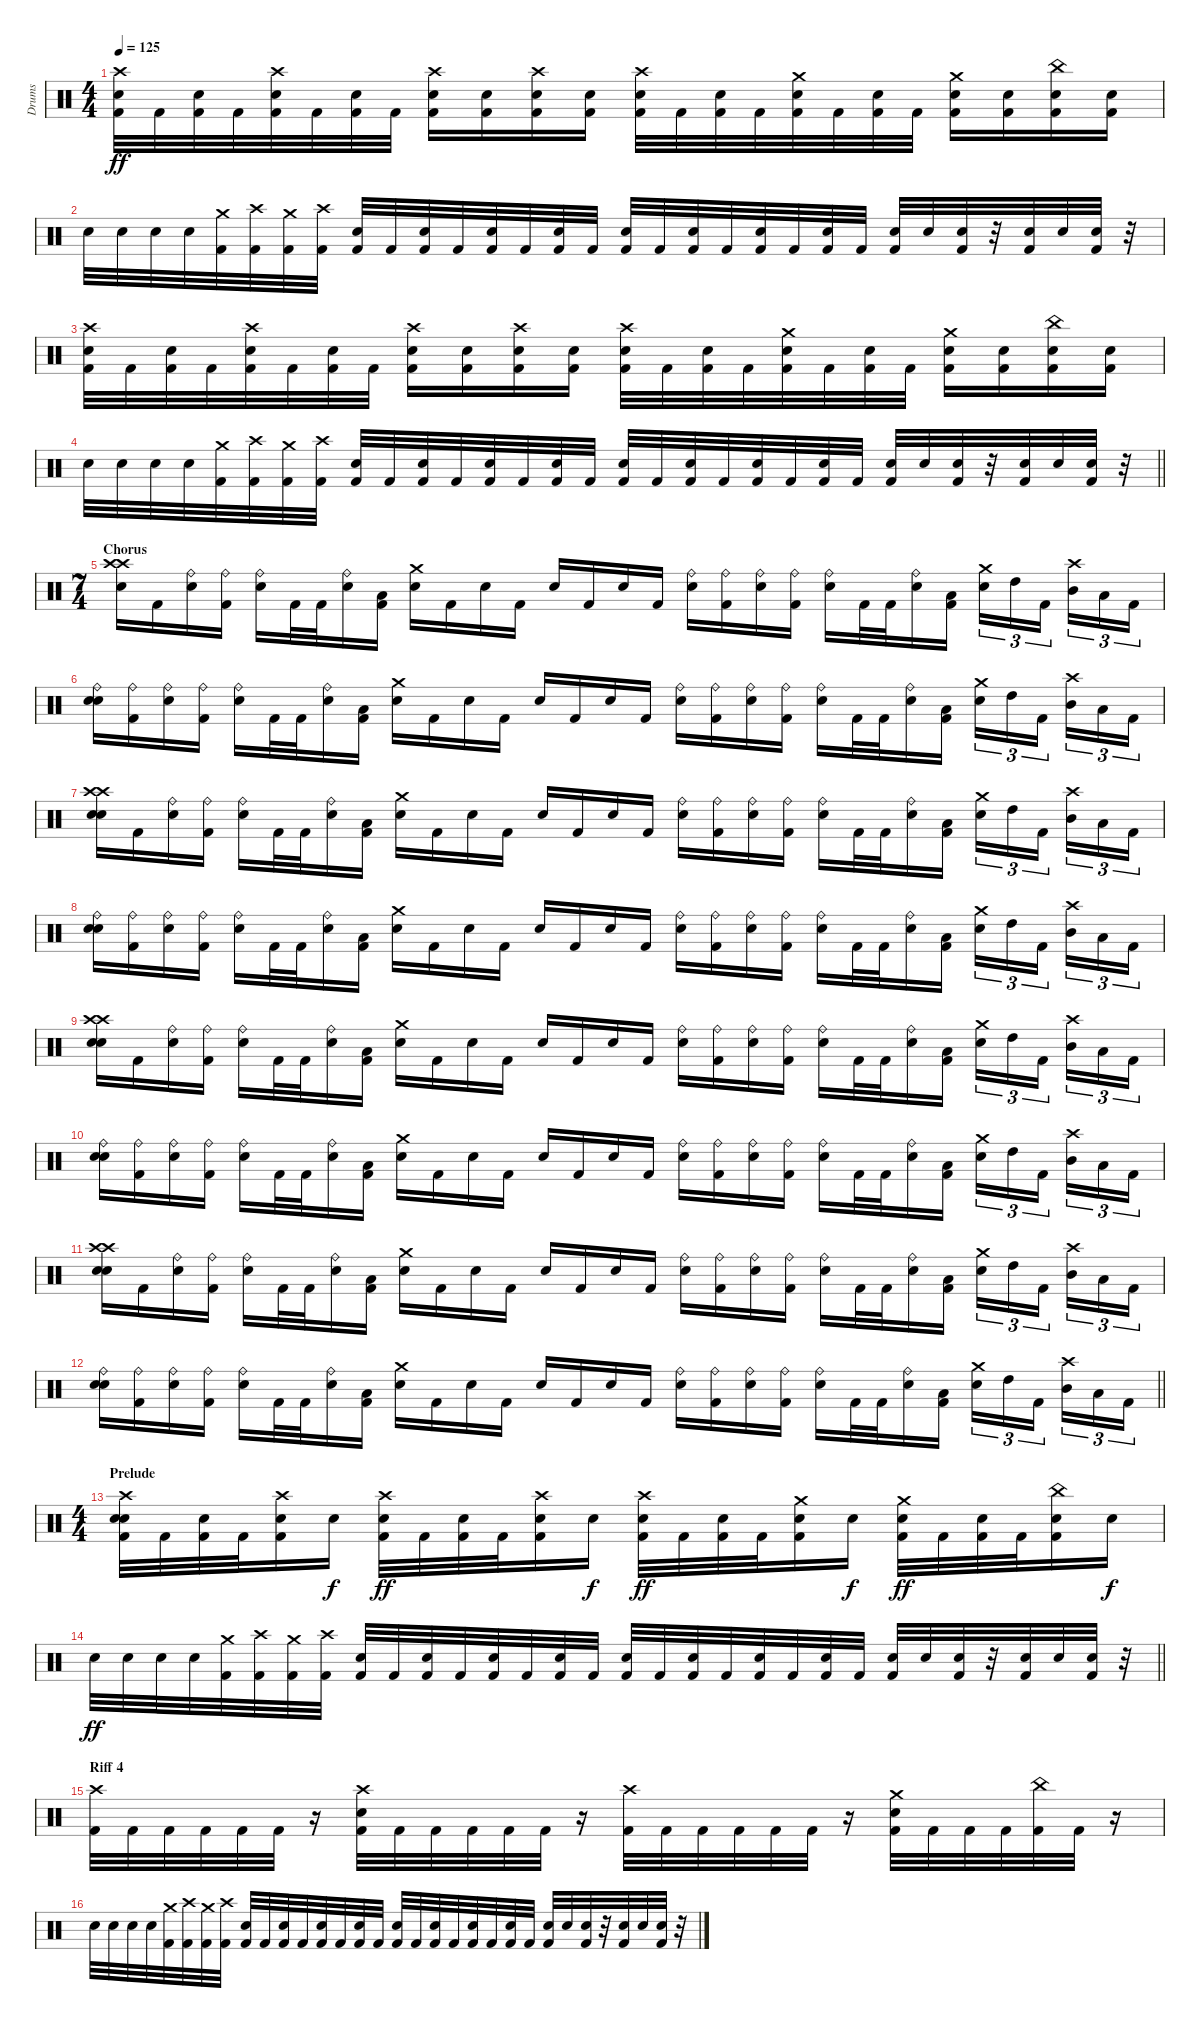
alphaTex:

\track ("Drums" "Drums") {instrument percussion}
\staff {score}
\articulation defaults
\ts (4 4)
\tempo 125
\clef neutral
\ks c
("Crash high (hit)" "Kick (hit) 2" "Snare (hit) 2").32{dy ff} "Kick (hit) 2".32 ("Kick (hit) 2" "Snare (hit) 2").32 "Kick (hit) 2".32 ("Crash high (hit)" "Kick (hit) 2" "Snare (hit) 2").32 "Kick (hit) 2".32 ("Kick (hit) 2" "Snare (hit) 2").32 "Kick (hit) 2".32 ("Crash high (hit)" "Kick (hit) 2" "Snare (hit) 2").16 ("Kick (hit) 2" "Snare (hit) 2").16 ("Crash high (hit)" "Kick (hit) 2" "Snare (hit) 2").16 ("Kick (hit) 2" "Snare (hit) 2").16 ("Crash high (hit)" "Kick (hit) 2" "Snare (hit) 2").32 "Kick (hit) 2".32 ("Kick (hit) 2" "Snare (hit) 2").32 "Kick (hit) 2".32 ("Crash medium (hit)" "Kick (hit) 2" "Snare (hit) 2").32 "Kick (hit) 2".32 ("Kick (hit) 2" "Snare (hit) 2").32 "Kick (hit) 2".32 ("Crash medium (hit)" "Kick (hit) 2" "Snare (hit) 2").16 ("Kick (hit) 2" "Snare (hit) 2").16 ("China (hit)" "Kick (hit) 2" "Snare (hit) 2").16 ("Kick (hit) 2" "Snare (hit) 2").16 |
"Snare (hit) 2".32 "Snare (hit) 2".32 "Snare (hit) 2".32 "Snare (hit) 2".32 ("Crash medium (hit)" "Kick (hit) 2").32 ("Crash high (hit)" "Kick (hit) 2").32 ("Crash medium (hit)" "Kick (hit) 2").32 ("Crash high (hit)" "Kick (hit) 2").32 ("Kick (hit) 2" "Snare (hit) 2").32 "Kick (hit) 2".32 ("Kick (hit) 2" "Snare (hit) 2").32 "Kick (hit) 2".32 ("Kick (hit) 2" "Snare (hit) 2").32 "Kick (hit) 2".32 ("Kick (hit) 2" "Snare (hit) 2").32 "Kick (hit) 2".32 ("Kick (hit) 2" "Snare (hit) 2").32 "Kick (hit) 2".32 ("Kick (hit) 2" "Snare (hit) 2").32 "Kick (hit) 2".32 ("Kick (hit) 2" "Snare (hit) 2").32 "Kick (hit) 2".32 ("Kick (hit) 2" "Snare (hit) 2").32 "Kick (hit) 2".32 ("Kick (hit) 2" "Snare (hit) 2").32 "Snare (hit) 2".32 ("Kick (hit) 2" "Snare (hit) 2").32 r.32 ("Kick (hit) 2" "Snare (hit) 2").32 "Snare (hit) 2".32 ("Kick (hit) 2" "Snare (hit) 2").32 r.32 |
("Crash high (hit)" "Kick (hit) 2" "Snare (hit) 2").32 "Kick (hit) 2".32 ("Kick (hit) 2" "Snare (hit) 2").32 "Kick (hit) 2".32 ("Crash high (hit)" "Kick (hit) 2" "Snare (hit) 2").32 "Kick (hit) 2".32 ("Kick (hit) 2" "Snare (hit) 2").32 "Kick (hit) 2".32 ("Crash high (hit)" "Kick (hit) 2" "Snare (hit) 2").16 ("Kick (hit) 2" "Snare (hit) 2").16 ("Crash high (hit)" "Kick (hit) 2" "Snare (hit) 2").16 ("Kick (hit) 2" "Snare (hit) 2").16 ("Crash high (hit)" "Kick (hit) 2" "Snare (hit) 2").32 "Kick (hit) 2".32 ("Kick (hit) 2" "Snare (hit) 2").32 "Kick (hit) 2".32 ("Crash medium (hit)" "Kick (hit) 2" "Snare (hit) 2").32 "Kick (hit) 2".32 ("Kick (hit) 2" "Snare (hit) 2").32 "Kick (hit) 2".32 ("Crash medium (hit)" "Kick (hit) 2" "Snare (hit) 2").16 ("Kick (hit) 2" "Snare (hit) 2").16 ("China (hit)" "Kick (hit) 2" "Snare (hit) 2").16 ("Kick (hit) 2" "Snare (hit) 2").16 |
\barLineRight lightlight "Snare (hit) 2".32 "Snare (hit) 2".32 "Snare (hit) 2".32 "Snare (hit) 2".32
("Crash medium (hit)" "Kick (hit) 2").32 ("Crash high (hit)" "Kick (hit) 2").32 ("Crash medium (hit)" "Kick (hit) 2").32 ("Crash high (hit)" "Kick (hit) 2").32 ("Kick (hit) 2" "Snare (hit) 2").32 "Kick (hit) 2".32 ("Kick (hit) 2" "Snare (hit) 2").32 "Kick (hit) 2".32 ("Kick (hit) 2" "Snare (hit) 2").32 "Kick (hit) 2".32 ("Kick (hit) 2" "Snare (hit) 2").32 "Kick (hit) 2".32 ("Kick (hit) 2" "Snare (hit) 2").32 "Kick (hit) 2".32 ("Kick (hit) 2" "Snare (hit) 2").32 "Kick (hit) 2".32 ("Kick (hit) 2" "Snare (hit) 2").32 "Kick (hit) 2".32 ("Kick (hit) 2" "Snare (hit) 2").32 "Kick (hit) 2".32 ("Kick (hit) 2" "Snare (hit) 2").32 "Snare (hit) 2".32 ("Kick (hit) 2" "Snare (hit) 2").32 r.32 ("Kick (hit) 2" "Snare (hit) 2").32 "Snare (hit) 2".32 ("Kick (hit) 2" "Snare (hit) 2").32 r.32 |
\ts (7 4)
\section ("" "Chorus")
("Crash high (hit)" "Crash high (hit)" "Snare (hit) 2").16 "Kick (hit) 2".16 ("Snare (hit) 2" "Ride (bell)").16 ("Kick (hit) 2" "Ride (bell)").16 ("Snare (hit) 2" "Ride (bell)").16 "Kick (hit) 2".32 "Kick (hit) 2".32 ("Snare (hit) 2" "Ride (bell)").16 ("Kick (hit) 2" "Low Tom (hit)").16 ("Crash medium (hit)" "Snare (hit) 2").16 "Kick (hit) 2".16 "Snare (hit) 2".16 "Kick (hit) 2".16 "Snare (hit) 2".16 "Kick (hit) 2".16 "Snare (hit) 2".16 "Kick (hit) 2".16 ("Snare (hit) 2" "Ride (bell)").16 ("Kick (hit) 2" "Ride (bell)").16 ("Snare (hit) 2" "Ride (bell)").16 ("Kick (hit) 2" "Ride (bell)").16 ("Snare (hit) 2" "Ride (bell)").16 "Kick (hit) 2".32 "Kick (hit) 2".32 ("Snare (hit) 2" "Ride (bell)").16 ("Kick (hit) 2" "Low Tom (hit)").16 ("Crash medium (hit)" "Snare (hit) 2").16{tu (3 2)} "High Tom (hit)".16{tu (3 2)} "Kick (hit) 2".16{tu (3 2) beam splitsecondary} ("Crash high (hit)" "Mid Tom (hit)").16{tu (3 2)} "Low Tom (hit)".16{tu (3 2)} "Kick (hit) 2".16{tu (3 2)} |
("Snare (hit) 2" "Snare (hit) 2" "Ride (bell)").16 ("Kick (hit) 2" "Ride (bell)").16 ("Snare (hit) 2" "Ride (bell)").16 ("Kick (hit) 2" "Ride (bell)").16 ("Snare (hit) 2" "Ride (bell)").16 "Kick (hit) 2".32 "Kick (hit) 2".32 ("Snare (hit) 2" "Ride (bell)").16 ("Kick (hit) 2" "Low Tom (hit)").16 ("Crash medium (hit)" "Snare (hit) 2").16 "Kick (hit) 2".16 "Snare (hit) 2".16 "Kick (hit) 2".16 "Snare (hit) 2".16 "Kick (hit) 2".16 "Snare (hit) 2".16 "Kick (hit) 2".16 ("Snare (hit) 2" "Ride (bell)").16 ("Kick (hit) 2" "Ride (bell)").16 ("Snare (hit) 2" "Ride (bell)").16 ("Kick (hit) 2" "Ride (bell)").16 ("Snare (hit) 2" "Ride (bell)").16 "Kick (hit) 2".32 "Kick (hit) 2".32 ("Snare (hit) 2" "Ride (bell)").16 ("Kick (hit) 2" "Low Tom (hit)").16 ("Crash medium (hit)" "Snare (hit) 2").16{tu (3 2)} "High Tom (hit)".16{tu (3 2)} "Kick (hit) 2".16{tu (3 2) beam splitsecondary} ("Crash high (hit)" "Mid Tom (hit)").16{tu (3 2)} "Low Tom (hit)".16{tu (3 2)} "Kick (hit) 2".16{tu (3 2)} |
("Snare (hit) 2" "Crash high (hit)" "Crash high (hit)" "Snare (hit) 2").16 "Kick (hit) 2".16 ("Snare (hit) 2" "Ride (bell)").16 ("Kick (hit) 2" "Ride (bell)").16 ("Snare (hit) 2" "Ride (bell)").16 "Kick (hit) 2".32 "Kick (hit) 2".32 ("Snare (hit) 2" "Ride (bell)").16 ("Kick (hit) 2" "Low Tom (hit)").16 ("Crash medium (hit)" "Snare (hit) 2").16 "Kick (hit) 2".16 "Snare (hit) 2".16 "Kick (hit) 2".16 "Snare (hit) 2".16 "Kick (hit) 2".16 "Snare (hit) 2".16 "Kick (hit) 2".16 ("Snare (hit) 2" "Ride (bell)").16 ("Kick (hit) 2" "Ride (bell)").16 ("Snare (hit) 2" "Ride (bell)").16 ("Kick (hit) 2" "Ride (bell)").16 ("Snare (hit) 2" "Ride (bell)").16 "Kick (hit) 2".32 "Kick (hit) 2".32 ("Snare (hit) 2" "Ride (bell)").16 ("Kick (hit) 2" "Low Tom (hit)").16 ("Crash medium (hit)" "Snare (hit) 2").16{tu (3 2)} "High Tom (hit)".16{tu (3 2)} "Kick (hit) 2".16{tu (3 2) beam splitsecondary} ("Crash high (hit)" "Mid Tom (hit)").16{tu (3 2)} "Low Tom (hit)".16{tu (3 2)} "Kick (hit) 2".16{tu (3 2)} |
("Snare (hit) 2" "Snare (hit) 2" "Ride (bell)").16 ("Kick (hit) 2" "Ride (bell)").16 ("Snare (hit) 2" "Ride (bell)").16 ("Kick (hit) 2" "Ride (bell)").16 ("Snare (hit) 2" "Ride (bell)").16 "Kick (hit) 2".32 "Kick (hit) 2".32 ("Snare (hit) 2" "Ride (bell)").16 ("Kick (hit) 2" "Low Tom (hit)").16 ("Crash medium (hit)" "Snare (hit) 2").16 "Kick (hit) 2".16 "Snare (hit) 2".16 "Kick (hit) 2".16 "Snare (hit) 2".16 "Kick (hit) 2".16 "Snare (hit) 2".16 "Kick (hit) 2".16 ("Snare (hit) 2" "Ride (bell)").16 ("Kick (hit) 2" "Ride (bell)").16 ("Snare (hit) 2" "Ride (bell)").16 ("Kick (hit) 2" "Ride (bell)").16 ("Snare (hit) 2" "Ride (bell)").16 "Kick (hit) 2".32 "Kick (hit) 2".32 ("Snare (hit) 2" "Ride (bell)").16 ("Kick (hit) 2" "Low Tom (hit)").16 ("Crash medium (hit)" "Snare (hit) 2").16{tu (3 2)} "High Tom (hit)".16{tu (3 2)} "Kick (hit) 2".16{tu (3 2) beam splitsecondary} ("Crash high (hit)" "Mid Tom (hit)").16{tu (3 2)} "Low Tom (hit)".16{tu (3 2)} "Kick (hit) 2".16{tu (3 2)} |
("Snare (hit) 2" "Crash high (hit)" "Crash high (hit)" "Snare (hit) 2").16 "Kick (hit) 2".16 ("Snare (hit) 2" "Ride (bell)").16 ("Kick (hit) 2" "Ride (bell)").16 ("Snare (hit) 2" "Ride (bell)").16 "Kick (hit) 2".32 "Kick (hit) 2".32 ("Snare (hit) 2" "Ride (bell)").16 ("Kick (hit) 2" "Low Tom (hit)").16 ("Crash medium (hit)" "Snare (hit) 2").16 "Kick (hit) 2".16 "Snare (hit) 2".16 "Kick (hit) 2".16 "Snare (hit) 2".16 "Kick (hit) 2".16 "Snare (hit) 2".16 "Kick (hit) 2".16 ("Snare (hit) 2" "Ride (bell)").16 ("Kick (hit) 2" "Ride (bell)").16 ("Snare (hit) 2" "Ride (bell)").16 ("Kick (hit) 2" "Ride (bell)").16 ("Snare (hit) 2" "Ride (bell)").16 "Kick (hit) 2".32 "Kick (hit) 2".32 ("Snare (hit) 2" "Ride (bell)").16 ("Kick (hit) 2" "Low Tom (hit)").16 ("Crash medium (hit)" "Snare (hit) 2").16{tu (3 2)} "High Tom (hit)".16{tu (3 2)} "Kick (hit) 2".16{tu (3 2) beam splitsecondary} ("Crash high (hit)" "Mid Tom (hit)").16{tu (3 2)} "Low Tom (hit)".16{tu (3 2)} "Kick (hit) 2".16{tu (3 2)} |
("Snare (hit) 2" "Snare (hit) 2" "Ride (bell)").16 ("Kick (hit) 2" "Ride (bell)").16 ("Snare (hit) 2" "Ride (bell)").16 ("Kick (hit) 2" "Ride (bell)").16 ("Snare (hit) 2" "Ride (bell)").16 "Kick (hit) 2".32 "Kick (hit) 2".32 ("Snare (hit) 2" "Ride (bell)").16 ("Kick (hit) 2" "Low Tom (hit)").16 ("Crash medium (hit)" "Snare (hit) 2").16 "Kick (hit) 2".16 "Snare (hit) 2".16 "Kick (hit) 2".16 "Snare (hit) 2".16 "Kick (hit) 2".16 "Snare (hit) 2".16 "Kick (hit) 2".16 ("Snare (hit) 2" "Ride (bell)").16 ("Kick (hit) 2" "Ride (bell)").16 ("Snare (hit) 2" "Ride (bell)").16 ("Kick (hit) 2" "Ride (bell)").16 ("Snare (hit) 2" "Ride (bell)").16 "Kick (hit) 2".32 "Kick (hit) 2".32 ("Snare (hit) 2" "Ride (bell)").16 ("Kick (hit) 2" "Low Tom (hit)").16 ("Crash medium (hit)" "Snare (hit) 2").16{tu (3 2)} "High Tom (hit)".16{tu (3 2)} "Kick (hit) 2".16{tu (3 2) beam splitsecondary} ("Crash high (hit)" "Mid Tom (hit)").16{tu (3 2)} "Low Tom (hit)".16{tu (3 2)} "Kick (hit) 2".16{tu (3 2)} |
("Snare (hit) 2" "Crash high (hit)" "Crash high (hit)" "Snare (hit) 2").16 "Kick (hit) 2".16 ("Snare (hit) 2" "Ride (bell)").16 ("Kick (hit) 2" "Ride (bell)").16 ("Snare (hit) 2" "Ride (bell)").16 "Kick (hit) 2".32 "Kick (hit) 2".32 ("Snare (hit) 2" "Ride (bell)").16 ("Kick (hit) 2" "Low Tom (hit)").16 ("Crash medium (hit)" "Snare (hit) 2").16 "Kick (hit) 2".16 "Snare (hit) 2".16 "Kick (hit) 2".16 "Snare (hit) 2".16 "Kick (hit) 2".16 "Snare (hit) 2".16 "Kick (hit) 2".16 ("Snare (hit) 2" "Ride (bell)").16 ("Kick (hit) 2" "Ride (bell)").16 ("Snare (hit) 2" "Ride (bell)").16 ("Kick (hit) 2" "Ride (bell)").16 ("Snare (hit) 2" "Ride (bell)").16 "Kick (hit) 2".32 "Kick (hit) 2".32 ("Snare (hit) 2" "Ride (bell)").16 ("Kick (hit) 2" "Low Tom (hit)").16 ("Crash medium (hit)" "Snare (hit) 2").16{tu (3 2)} "High Tom (hit)".16{tu (3 2)} "Kick (hit) 2".16{tu (3 2) beam splitsecondary} ("Crash high (hit)" "Mid Tom (hit)").16{tu (3 2)} "Low Tom (hit)".16{tu (3 2)} "Kick (hit) 2".16{tu (3 2)} |
\barLineRight lightlight
("Snare (hit) 2" "Snare (hit) 2" "Ride (bell)").16 ("Kick (hit) 2" "Ride (bell)").16 ("Snare (hit) 2" "Ride (bell)").16 ("Kick (hit) 2" "Ride (bell)").16 ("Snare (hit) 2" "Ride (bell)").16 "Kick (hit) 2".32 "Kick (hit) 2".32 ("Snare (hit) 2" "Ride (bell)").16 ("Kick (hit) 2" "Low Tom (hit)").16 ("Crash medium (hit)" "Snare (hit) 2").16 "Kick (hit) 2".16 "Snare (hit) 2".16 "Kick (hit) 2".16 "Snare (hit) 2".16 "Kick (hit) 2".16 "Snare (hit) 2".16 "Kick (hit) 2".16 ("Snare (hit) 2" "Ride (bell)").16 ("Kick (hit) 2" "Ride (bell)").16 ("Snare (hit) 2" "Ride (bell)").16 ("Kick (hit) 2" "Ride (bell)").16 ("Snare (hit) 2" "Ride (bell)").16 "Kick (hit) 2".32 "Kick (hit) 2".32 ("Snare (hit) 2" "Ride (bell)").16 ("Kick (hit) 2" "Low Tom (hit)").16 ("Crash medium (hit)" "Snare (hit) 2").16{tu (3 2)} "High Tom (hit)".16{tu (3 2)} "Kick (hit) 2".16{tu (3 2) beam splitsecondary} ("Crash high (hit)" "Mid Tom (hit)").16{tu (3 2)} "Low Tom (hit)".16{tu (3 2)} "Kick (hit) 2".16{tu (3 2)} |
\ts (4 4)
\section ("" "Prelude")
("Snare (hit) 2" "Crash high (hit)" "Kick (hit) 2" "Snare (hit) 2").32 "Kick (hit) 2".32 ("Kick (hit) 2" "Snare (hit) 2").32 "Kick (hit) 2".32 ("Crash high (hit)" "Kick (hit) 2" "Snare (hit) 2").16 "Snare (hit) 2".16{dy f} ("Crash high (hit)" "Kick (hit) 2" "Snare (hit) 2").32{dy ff} "Kick (hit) 2".32 ("Kick (hit) 2" "Snare (hit) 2").32 "Kick (hit) 2".32 ("Crash high (hit)" "Kick (hit) 2" "Snare (hit) 2").16 "Snare (hit) 2".16{dy f} ("Crash high (hit)" "Kick (hit) 2" "Snare (hit) 2").32{dy ff} "Kick (hit) 2".32 ("Kick (hit) 2" "Snare (hit) 2").32 "Kick (hit) 2".32 ("Crash medium (hit)" "Kick (hit) 2" "Snare (hit) 2").16 "Snare (hit) 2".16{dy f} ("Crash medium (hit)" "Kick (hit) 2" "Snare (hit) 2").32{dy ff} "Kick (hit) 2".32 ("Kick (hit) 2" "Snare (hit) 2").32 "Kick (hit) 2".32 ("China (hit)" "Kick (hit) 2" "Snare (hit) 2").16 "Snare (hit) 2".16{dy f} |
\barLineRight lightlight "Snare (hit) 2".32{dy ff} "Snare (hit) 2".32 "Snare (hit) 2".32 "Snare (hit) 2".32
("Crash medium (hit)" "Kick (hit) 2").32 ("Crash high (hit)" "Kick (hit) 2").32 ("Crash medium (hit)" "Kick (hit) 2").32 ("Crash high (hit)" "Kick (hit) 2").32 ("Kick (hit) 2" "Snare (hit) 2").32 "Kick (hit) 2".32 ("Kick (hit) 2" "Snare (hit) 2").32 "Kick (hit) 2".32 ("Kick (hit) 2" "Snare (hit) 2").32 "Kick (hit) 2".32 ("Kick (hit) 2" "Snare (hit) 2").32 "Kick (hit) 2".32 ("Kick (hit) 2" "Snare (hit) 2").32 "Kick (hit) 2".32 ("Kick (hit) 2" "Snare (hit) 2").32 "Kick (hit) 2".32 ("Kick (hit) 2" "Snare (hit) 2").32 "Kick (hit) 2".32 ("Kick (hit) 2" "Snare (hit) 2").32 "Kick (hit) 2".32 ("Kick (hit) 2" "Snare (hit) 2").32 "Snare (hit) 2".32 ("Kick (hit) 2" "Snare (hit) 2").32 r.32 ("Kick (hit) 2" "Snare (hit) 2").32 "Snare (hit) 2".32 ("Kick (hit) 2" "Snare (hit) 2").32 r.32 |
\section ("" "Riff 4")
("Crash high (hit)" "Kick (hit) 2").32 "Kick (hit) 2".32 "Kick (hit) 2".32 "Kick (hit) 2".32 "Kick (hit) 2".32 "Kick (hit) 2".32 r.16 ("Crash high (hit)" "Kick (hit) 2" "Snare (hit) 2").32 "Kick (hit) 2".32 "Kick (hit) 2".32 "Kick (hit) 2".32 "Kick (hit) 2".32 "Kick (hit) 2".32 r.16 ("Crash high (hit)" "Kick (hit) 2").32 "Kick (hit) 2".32 "Kick (hit) 2".32 "Kick (hit) 2".32 "Kick (hit) 2".32 "Kick (hit) 2".32 r.16 ("Crash medium (hit)" "Kick (hit) 2" "Snare (hit) 2").32 "Kick (hit) 2".32 "Kick (hit) 2".32 "Kick (hit) 2".32 ("China (hit)" "Kick (hit) 2").32 "Kick (hit) 2".32 r.16 |
"Snare (hit) 2".32 "Snare (hit) 2".32 "Snare (hit) 2".32 "Snare (hit) 2".32 ("Crash medium (hit)" "Kick (hit) 2").32 ("Crash high (hit)" "Kick (hit) 2").32 ("Crash medium (hit)" "Kick (hit) 2").32 ("Crash high (hit)" "Kick (hit) 2").32 ("Kick (hit) 2" "Snare (hit) 2").32 "Kick (hit) 2".32 ("Kick (hit) 2" "Snare (hit) 2").32 "Kick (hit) 2".32 ("Kick (hit) 2" "Snare (hit) 2").32 "Kick (hit) 2".32 ("Kick (hit) 2" "Snare (hit) 2").32 "Kick (hit) 2".32 ("Kick (hit) 2" "Snare (hit) 2").32 "Kick (hit) 2".32 ("Kick (hit) 2" "Snare (hit) 2").32 "Kick (hit) 2".32 ("Kick (hit) 2" "Snare (hit) 2").32 "Kick (hit) 2".32 ("Kick (hit) 2" "Snare (hit) 2").32 "Kick (hit) 2".32 ("Kick (hit) 2" "Snare (hit) 2").32 "Snare (hit) 2".32 ("Kick (hit) 2" "Snare (hit) 2").32 r.32 ("Kick (hit) 2" "Snare (hit) 2").32 "Snare (hit) 2".32 ("Kick (hit) 2" "Snare (hit) 2").32 r.32
